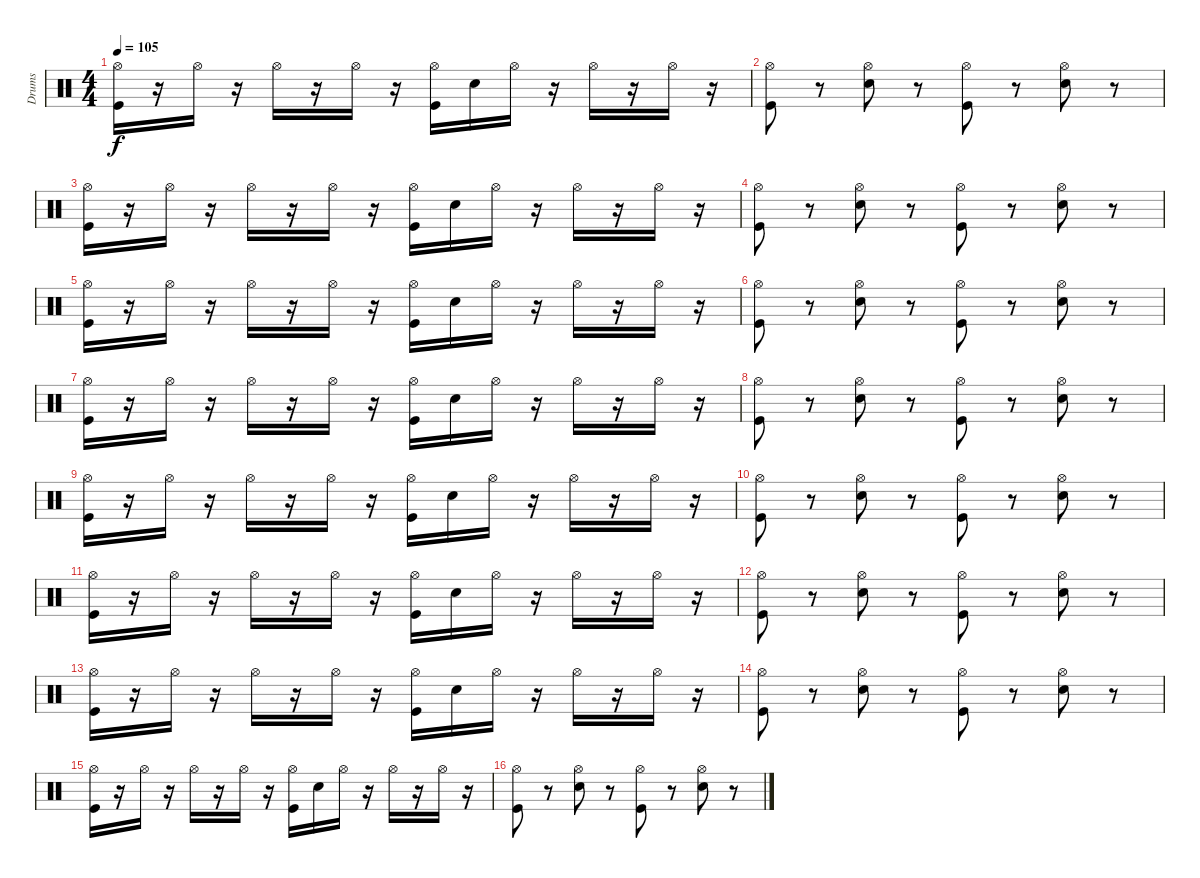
\track ("Drums" "Drums") {instrument percussion}
\staff {score}
\articulation defaults
\ts (4 4)
\tempo 105
\clef neutral
\ks c
("Hi-Hat (open)" "Kick (hit)").16{dy f} r.16 "Hi-Hat (open)".16 r.16 "Hi-Hat (open)".16 r.16 "Hi-Hat (open)".16 r.16 ("Hi-Hat (open)" "Kick (hit)").16 "Snare (hit) 2".16 "Hi-Hat (open)".16 r.16 "Hi-Hat (open)".16 r.16 "Hi-Hat (open)".16 r.16 |
("Hi-Hat (open)" "Kick (hit)").8 r.8 ("Hi-Hat (open)" "Snare (hit) 2").8 r.8 ("Hi-Hat (open)" "Kick (hit)").8 r.8 ("Hi-Hat (open)" "Snare (hit) 2").8 r.8 |
("Hi-Hat (open)" "Kick (hit)").16 r.16 "Hi-Hat (open)".16 r.16 "Hi-Hat (open)".16 r.16 "Hi-Hat (open)".16 r.16 ("Hi-Hat (open)" "Kick (hit)").16 "Snare (hit) 2".16 "Hi-Hat (open)".16 r.16 "Hi-Hat (open)".16 r.16 "Hi-Hat (open)".16 r.16 |
("Hi-Hat (open)" "Kick (hit)").8 r.8 ("Hi-Hat (open)" "Snare (hit) 2").8 r.8 ("Hi-Hat (open)" "Kick (hit)").8 r.8 ("Hi-Hat (open)" "Snare (hit) 2").8 r.8 |
("Hi-Hat (open)" "Kick (hit)").16 r.16 "Hi-Hat (open)".16 r.16 "Hi-Hat (open)".16 r.16 "Hi-Hat (open)".16 r.16 ("Hi-Hat (open)" "Kick (hit)").16 "Snare (hit) 2".16 "Hi-Hat (open)".16 r.16 "Hi-Hat (open)".16 r.16 "Hi-Hat (open)".16 r.16 |
("Hi-Hat (open)" "Kick (hit)").8 r.8 ("Hi-Hat (open)" "Snare (hit) 2").8 r.8 ("Hi-Hat (open)" "Kick (hit)").8 r.8 ("Hi-Hat (open)" "Snare (hit) 2").8 r.8 |
("Hi-Hat (open)" "Kick (hit)").16 r.16 "Hi-Hat (open)".16 r.16 "Hi-Hat (open)".16 r.16 "Hi-Hat (open)".16 r.16 ("Hi-Hat (open)" "Kick (hit)").16 "Snare (hit) 2".16 "Hi-Hat (open)".16 r.16 "Hi-Hat (open)".16 r.16 "Hi-Hat (open)".16 r.16 |
("Hi-Hat (open)" "Kick (hit)").8 r.8 ("Hi-Hat (open)" "Snare (hit) 2").8 r.8 ("Hi-Hat (open)" "Kick (hit)").8 r.8 ("Hi-Hat (open)" "Snare (hit) 2").8 r.8 |
("Hi-Hat (open)" "Kick (hit)").16 r.16 "Hi-Hat (open)".16 r.16 "Hi-Hat (open)".16 r.16 "Hi-Hat (open)".16 r.16 ("Hi-Hat (open)" "Kick (hit)").16 "Snare (hit) 2".16 "Hi-Hat (open)".16 r.16 "Hi-Hat (open)".16 r.16 "Hi-Hat (open)".16 r.16 |
("Hi-Hat (open)" "Kick (hit)").8 r.8 ("Hi-Hat (open)" "Snare (hit) 2").8 r.8 ("Hi-Hat (open)" "Kick (hit)").8 r.8 ("Hi-Hat (open)" "Snare (hit) 2").8 r.8 |
("Hi-Hat (open)" "Kick (hit)").16 r.16 "Hi-Hat (open)".16 r.16 "Hi-Hat (open)".16 r.16 "Hi-Hat (open)".16 r.16 ("Hi-Hat (open)" "Kick (hit)").16 "Snare (hit) 2".16 "Hi-Hat (open)".16 r.16 "Hi-Hat (open)".16 r.16 "Hi-Hat (open)".16 r.16 |
("Hi-Hat (open)" "Kick (hit)").8 r.8 ("Hi-Hat (open)" "Snare (hit) 2").8 r.8 ("Hi-Hat (open)" "Kick (hit)").8 r.8 ("Hi-Hat (open)" "Snare (hit) 2").8 r.8 |
("Hi-Hat (open)" "Kick (hit)").16 r.16 "Hi-Hat (open)".16 r.16 "Hi-Hat (open)".16 r.16 "Hi-Hat (open)".16 r.16 ("Hi-Hat (open)" "Kick (hit)").16 "Snare (hit) 2".16 "Hi-Hat (open)".16 r.16 "Hi-Hat (open)".16 r.16 "Hi-Hat (open)".16 r.16 |
("Hi-Hat (open)" "Kick (hit)").8 r.8 ("Hi-Hat (open)" "Snare (hit) 2").8 r.8 ("Hi-Hat (open)" "Kick (hit)").8 r.8 ("Hi-Hat (open)" "Snare (hit) 2").8 r.8 |
("Hi-Hat (open)" "Kick (hit)").16 r.16 "Hi-Hat (open)".16 r.16 "Hi-Hat (open)".16 r.16 "Hi-Hat (open)".16 r.16 ("Hi-Hat (open)" "Kick (hit)").16 "Snare (hit) 2".16 "Hi-Hat (open)".16 r.16 "Hi-Hat (open)".16 r.16 "Hi-Hat (open)".16 r.16 |
("Hi-Hat (open)" "Kick (hit)").8 r.8 ("Hi-Hat (open)" "Snare (hit) 2").8 r.8 ("Hi-Hat (open)" "Kick (hit)").8 r.8 ("Hi-Hat (open)" "Snare (hit) 2").8 r.8
